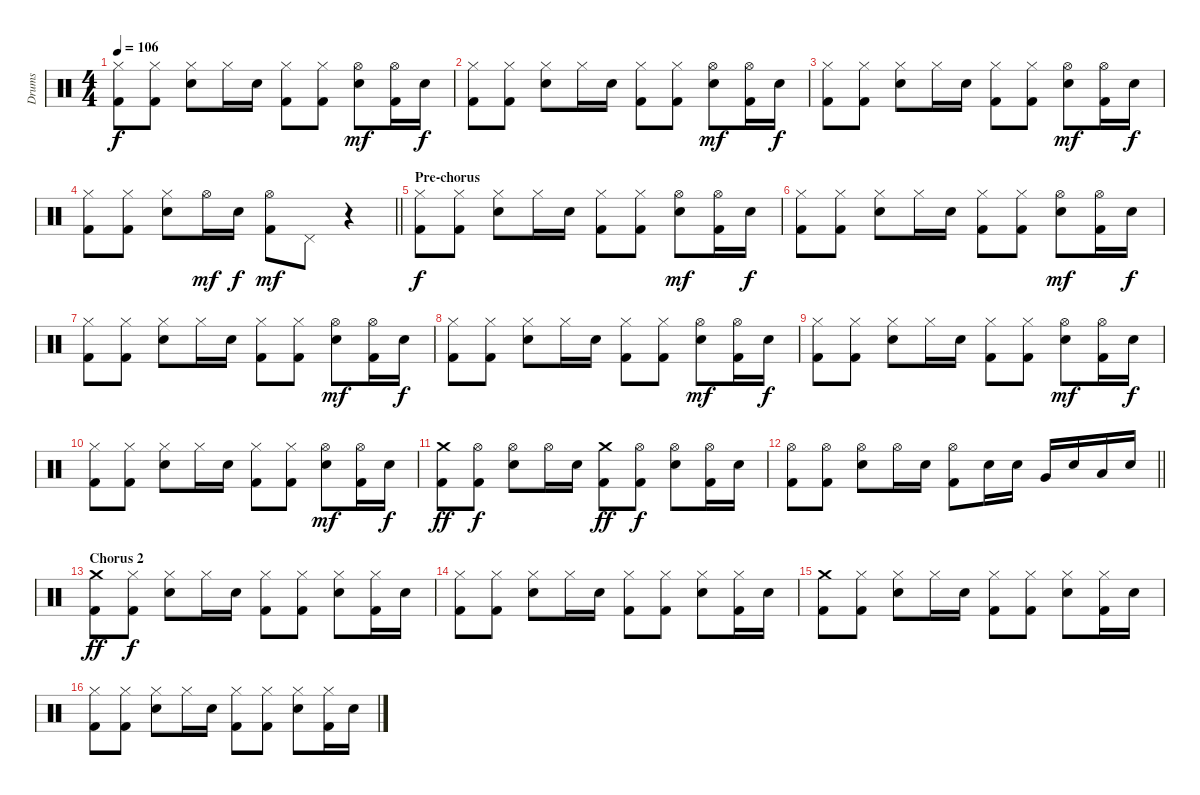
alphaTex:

\track ("Drums" "Drums") {instrument percussion}
\staff {score}
\articulation defaults
\ts (4 4)
\tempo 106
\clef neutral
\ks c
("Hi-Hat (closed)" "Kick (hit) 2").8{dy f} ("Hi-Hat (closed)" "Kick (hit) 2").8 ("Hi-Hat (closed)" "Electric Snare (hit)").8 "Hi-Hat (closed)".16 "Electric Snare (hit)".16 ("Hi-Hat (closed)" "Kick (hit) 2").8 ("Hi-Hat (closed)" "Kick (hit) 2").8 ("Hi-Hat (open)" "Electric Snare (hit)").8{dy mf} ("Hi-Hat (open)" "Kick (hit) 2").16 "Electric Snare (hit)".16{dy f} |
("Hi-Hat (closed)" "Kick (hit) 2").8 ("Hi-Hat (closed)" "Kick (hit) 2").8 ("Hi-Hat (closed)" "Electric Snare (hit)").8 "Hi-Hat (closed)".16 "Electric Snare (hit)".16 ("Hi-Hat (closed)" "Kick (hit) 2").8 ("Hi-Hat (closed)" "Kick (hit) 2").8 ("Hi-Hat (open)" "Electric Snare (hit)").8{dy mf} ("Hi-Hat (open)" "Kick (hit) 2").16 "Electric Snare (hit)".16{dy f} |
("Hi-Hat (closed)" "Kick (hit) 2").8 ("Hi-Hat (closed)" "Kick (hit) 2").8 ("Hi-Hat (closed)" "Electric Snare (hit)").8 "Hi-Hat (closed)".16 "Electric Snare (hit)".16 ("Hi-Hat (closed)" "Kick (hit) 2").8 ("Hi-Hat (closed)" "Kick (hit) 2").8 ("Hi-Hat (open)" "Electric Snare (hit)").8{dy mf} ("Hi-Hat (open)" "Kick (hit) 2").16 "Electric Snare (hit)".16{dy f} |
\barLineRight lightlight
("Hi-Hat (closed)" "Kick (hit) 2").8 ("Hi-Hat (closed)" "Kick (hit) 2").8 ("Hi-Hat (closed)" "Electric Snare (hit)").8 "Hi-Hat (open)".16{dy mf} "Electric Snare (hit)".16{dy f} ("Hi-Hat (open)" "Kick (hit) 2").8{dy mf} "Pedal Hi-Hat (hit)".8 r.4 |
\section ("" "Pre-chorus")
("Hi-Hat (closed)" "Kick (hit) 2").8{dy f} ("Hi-Hat (closed)" "Kick (hit) 2").8 ("Hi-Hat (closed)" "Electric Snare (hit)").8 "Hi-Hat (closed)".16 "Electric Snare (hit)".16 ("Hi-Hat (closed)" "Kick (hit) 2").8 ("Hi-Hat (closed)" "Kick (hit) 2").8 ("Hi-Hat (open)" "Electric Snare (hit)").8{dy mf} ("Hi-Hat (open)" "Kick (hit) 2").16 "Electric Snare (hit)".16{dy f} |
("Hi-Hat (closed)" "Kick (hit) 2").8 ("Hi-Hat (closed)" "Kick (hit) 2").8 ("Hi-Hat (closed)" "Electric Snare (hit)").8 "Hi-Hat (closed)".16 "Electric Snare (hit)".16 ("Hi-Hat (closed)" "Kick (hit) 2").8 ("Hi-Hat (closed)" "Kick (hit) 2").8 ("Hi-Hat (open)" "Electric Snare (hit)").8{dy mf} ("Hi-Hat (open)" "Kick (hit) 2").16 "Electric Snare (hit)".16{dy f} |
("Hi-Hat (closed)" "Kick (hit) 2").8 ("Hi-Hat (closed)" "Kick (hit) 2").8 ("Hi-Hat (closed)" "Electric Snare (hit)").8 "Hi-Hat (closed)".16 "Electric Snare (hit)".16 ("Hi-Hat (closed)" "Kick (hit) 2").8 ("Hi-Hat (closed)" "Kick (hit) 2").8 ("Hi-Hat (open)" "Electric Snare (hit)").8{dy mf} ("Hi-Hat (open)" "Kick (hit) 2").16 "Electric Snare (hit)".16{dy f} |
("Hi-Hat (closed)" "Kick (hit) 2").8 ("Hi-Hat (closed)" "Kick (hit) 2").8 ("Hi-Hat (closed)" "Electric Snare (hit)").8 "Hi-Hat (closed)".16 "Electric Snare (hit)".16 ("Hi-Hat (closed)" "Kick (hit) 2").8 ("Hi-Hat (closed)" "Kick (hit) 2").8 ("Hi-Hat (open)" "Electric Snare (hit)").8{dy mf} ("Hi-Hat (open)" "Kick (hit) 2").16 "Electric Snare (hit)".16{dy f} |
("Hi-Hat (closed)" "Kick (hit) 2").8 ("Hi-Hat (closed)" "Kick (hit) 2").8 ("Hi-Hat (closed)" "Electric Snare (hit)").8 "Hi-Hat (closed)".16 "Electric Snare (hit)".16 ("Hi-Hat (closed)" "Kick (hit) 2").8 ("Hi-Hat (closed)" "Kick (hit) 2").8 ("Hi-Hat (open)" "Electric Snare (hit)").8{dy mf} ("Hi-Hat (open)" "Kick (hit) 2").16 "Electric Snare (hit)".16{dy f} |
("Hi-Hat (closed)" "Kick (hit) 2").8 ("Hi-Hat (closed)" "Kick (hit) 2").8 ("Hi-Hat (closed)" "Electric Snare (hit)").8 "Hi-Hat (closed)".16 "Electric Snare (hit)".16 ("Hi-Hat (closed)" "Kick (hit) 2").8 ("Hi-Hat (closed)" "Kick (hit) 2").8 ("Hi-Hat (open)" "Electric Snare (hit)").8{dy mf} ("Hi-Hat (open)" "Kick (hit) 2").16 "Electric Snare (hit)".16{dy f} |
("Crash medium (hit)" "Kick (hit) 2").8{dy ff} ("Hi-Hat (open)" "Kick (hit) 2").8{dy f} ("Hi-Hat (open)" "Electric Snare (hit)").8 "Hi-Hat (open)".16 "Electric Snare (hit)".16 ("Crash medium (hit)" "Kick (hit) 2").8{dy ff} ("Hi-Hat (open)" "Kick (hit) 2").8{dy f} ("Hi-Hat (open)" "Electric Snare (hit)").8 ("Hi-Hat (open)" "Kick (hit) 2").16 "Electric Snare (hit)".16 |
\barLineRight lightlight
("Hi-Hat (open)" "Kick (hit) 2").8 ("Hi-Hat (open)" "Kick (hit) 2").8 ("Hi-Hat (open)" "Electric Snare (hit)").8 "Hi-Hat (open)".16 "Electric Snare (hit)".16 ("Hi-Hat (open)" "Kick (hit) 2").8 "Electric Snare (hit)".16 "Electric Snare (hit)".16 "Very Low Tom (hit)".16 "Electric Snare (hit)".16 "Low Tom (hit)".16 "Electric Snare (hit)".16 |
\section ("" "Chorus 2")
("Crash medium (hit)" "Kick (hit) 2").8{dy ff} ("Hi-Hat (closed)" "Kick (hit) 2").8{dy f} ("Hi-Hat (closed)" "Electric Snare (hit)").8 "Hi-Hat (closed)".16 "Electric Snare (hit)".16 ("Hi-Hat (closed)" "Kick (hit) 2").8 ("Hi-Hat (closed)" "Kick (hit) 2").8 ("Hi-Hat (closed)" "Electric Snare (hit)").8 ("Hi-Hat (closed)" "Kick (hit) 2").16 "Electric Snare (hit)".16 |
("Hi-Hat (closed)" "Kick (hit) 2").8 ("Hi-Hat (closed)" "Kick (hit) 2").8 ("Hi-Hat (closed)" "Electric Snare (hit)").8 "Hi-Hat (closed)".16 "Electric Snare (hit)".16 ("Hi-Hat (closed)" "Kick (hit) 2").8 ("Hi-Hat (closed)" "Kick (hit) 2").8 ("Hi-Hat (closed)" "Electric Snare (hit)").8 ("Hi-Hat (closed)" "Kick (hit) 2").16 "Electric Snare (hit)".16 |
("Crash medium (hit)" "Kick (hit) 2").8 ("Hi-Hat (closed)" "Kick (hit) 2").8 ("Hi-Hat (closed)" "Electric Snare (hit)").8 "Hi-Hat (closed)".16 "Electric Snare (hit)".16 ("Hi-Hat (closed)" "Kick (hit) 2").8 ("Hi-Hat (closed)" "Kick (hit) 2").8 ("Hi-Hat (closed)" "Electric Snare (hit)").8 ("Hi-Hat (closed)" "Kick (hit) 2").16 "Electric Snare (hit)".16 |
("Hi-Hat (closed)" "Kick (hit) 2").8 ("Hi-Hat (closed)" "Kick (hit) 2").8 ("Hi-Hat (closed)" "Electric Snare (hit)").8 "Hi-Hat (closed)".16 "Electric Snare (hit)".16 ("Hi-Hat (closed)" "Kick (hit) 2").8 ("Hi-Hat (closed)" "Kick (hit) 2").8 ("Hi-Hat (closed)" "Electric Snare (hit)").8 ("Hi-Hat (closed)" "Kick (hit) 2").16 "Electric Snare (hit)".16
